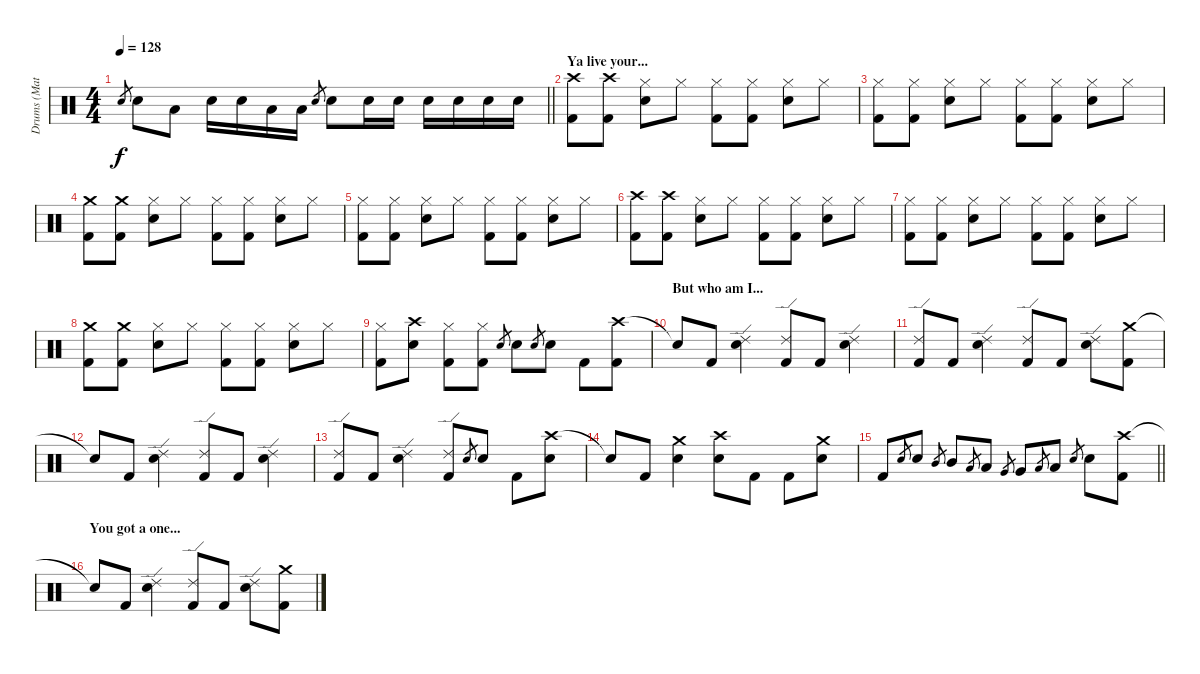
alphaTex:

\track ("Drums (Matt)" "Drums (Mat") {instrument percussion}
\staff {score}
\articulation defaults
\ts (4 4)
\tempo 128
\clef neutral
\barLineRight lightlight
\ks c "Snare (hit) 2".8{gr dy f} "Snare (hit) 2".8 "Low Tom (hit)".8 "Snare (hit) 2".16 "Snare (hit) 2".16 "Low Tom (hit)".16 "Low Tom (hit)".16 "Snare (hit) 2".8{gr} "Snare (hit) 2".8 "Snare (hit) 2".16 "Snare (hit) 2".16 "Snare (hit) 2".16 "Snare (hit) 2".16 "Snare (hit) 2".16 "Snare (hit) 2".16
|
\section ("" "Ya live your...")
("Crash high (hit)" "Kick (hit) 2").8 ("Crash high (hit)" "Kick (hit) 2").8 ("Hi-Hat (closed)" "Snare (hit) 2").8 "Hi-Hat (closed)".8 ("Hi-Hat (closed)" "Kick (hit) 2").8 ("Hi-Hat (closed)" "Kick (hit) 2").8 ("Hi-Hat (closed)" "Snare (hit) 2").8 "Hi-Hat (closed)".8 |
("Hi-Hat (closed)" "Kick (hit) 2").8 ("Hi-Hat (closed)" "Kick (hit) 2").8 ("Hi-Hat (closed)" "Snare (hit) 2").8 "Hi-Hat (closed)".8 ("Hi-Hat (closed)" "Kick (hit) 2").8 ("Hi-Hat (closed)" "Kick (hit) 2").8 ("Hi-Hat (closed)" "Snare (hit) 2").8 "Hi-Hat (closed)".8 |
("Crash medium (hit)" "Kick (hit) 2").8 ("Crash medium (hit)" "Kick (hit) 2").8 ("Hi-Hat (closed)" "Snare (hit) 2").8 "Hi-Hat (closed)".8 ("Hi-Hat (closed)" "Kick (hit) 2").8 ("Hi-Hat (closed)" "Kick (hit) 2").8 ("Hi-Hat (closed)" "Snare (hit) 2").8 "Hi-Hat (closed)".8 |
("Hi-Hat (closed)" "Kick (hit) 2").8 ("Hi-Hat (closed)" "Kick (hit) 2").8 ("Hi-Hat (closed)" "Snare (hit) 2").8 "Hi-Hat (closed)".8 ("Hi-Hat (closed)" "Kick (hit) 2").8 ("Hi-Hat (closed)" "Kick (hit) 2").8 ("Hi-Hat (closed)" "Snare (hit) 2").8 "Hi-Hat (closed)".8 |
("Crash high (hit)" "Kick (hit) 2").8 ("Crash high (hit)" "Kick (hit) 2").8 ("Hi-Hat (closed)" "Snare (hit) 2").8 "Hi-Hat (closed)".8 ("Hi-Hat (closed)" "Kick (hit) 2").8 ("Hi-Hat (closed)" "Kick (hit) 2").8 ("Hi-Hat (closed)" "Snare (hit) 2").8 "Hi-Hat (closed)".8 |
("Hi-Hat (closed)" "Kick (hit) 2").8 ("Hi-Hat (closed)" "Kick (hit) 2").8 ("Hi-Hat (closed)" "Snare (hit) 2").8 "Hi-Hat (closed)".8 ("Hi-Hat (closed)" "Kick (hit) 2").8 ("Hi-Hat (closed)" "Kick (hit) 2").8 ("Hi-Hat (closed)" "Snare (hit) 2").8 "Hi-Hat (closed)".8 |
("Crash medium (hit)" "Kick (hit) 2").8 ("Crash medium (hit)" "Kick (hit) 2").8 ("Hi-Hat (closed)" "Snare (hit) 2").8 "Hi-Hat (closed)".8 ("Hi-Hat (closed)" "Kick (hit) 2").8 ("Hi-Hat (closed)" "Kick (hit) 2").8 ("Hi-Hat (closed)" "Snare (hit) 2").8 "Hi-Hat (closed)".8 |
("Hi-Hat (closed)" "Kick (hit) 2").8 ("Crash high (hit)" "Snare (hit) 2").8 ("Hi-Hat (closed)" "Kick (hit) 2").8 ("Hi-Hat (closed)" "Kick (hit) 2").8 "Snare (hit) 2".8{gr} "Snare (hit) 2".8 "Snare (hit) 2".8{gr} "Snare (hit) 2".8 "Kick (hit) 2".8 ("Crash high (hit)" "Kick (hit) 2").8 |
\section ("" "But who am I...")
"Snare (hit)"{t}.8 "Kick (hit) 2".8 ("Ride (edge) 2" "Snare (hit) 2").4 ("Ride (edge) 2" "Kick (hit) 2").8 "Kick (hit) 2".8 ("Ride (edge) 2" "Snare (hit) 2").4 |
("Ride (edge) 2" "Kick (hit) 2").8 "Kick (hit) 2".8 ("Ride (edge) 2" "Snare (hit) 2").4 ("Ride (edge) 2" "Kick (hit) 2").8 "Kick (hit) 2".8 ("Ride (edge) 2" "Snare (hit) 2").8 ("Crash medium (hit)" "Kick (hit) 2").8 |
"Snare (hit)"{t}.8 "Kick (hit) 2".8 ("Ride (edge) 2" "Snare (hit) 2").4 ("Ride (edge) 2" "Kick (hit) 2").8 "Kick (hit) 2".8 ("Ride (edge) 2" "Snare (hit) 2").4 |
("Ride (edge) 2" "Kick (hit) 2").8 "Kick (hit) 2".8 ("Ride (edge) 2" "Snare (hit) 2").4 ("Ride (edge) 2" "Kick (hit) 2").8 "Snare (hit) 2".8{gr} "Snare (hit) 2".8 "Kick (hit) 2".8 ("Crash high (hit)" "Snare (hit) 2").8 |
"Snare (hit)"{t}.8 "Kick (hit) 2".8 ("Crash medium (hit)" "Snare (hit) 2").4 ("Crash high (hit)" "Snare (hit) 2").8 "Kick (hit) 2".8 "Kick (hit) 2".8 ("Crash medium (hit)" "Snare (hit) 2").8 |
\barLineRight lightlight "Kick (hit) 2".8 "Snare (hit) 2".8{gr} "Snare (hit) 2".8 "Mid Tom (hit)".8{gr} "Mid Tom (hit)".8 "Low Tom (hit)".8{gr} "Low Tom (hit)".8 "Very Low Tom (hit)".8{gr} "Very Low Tom (hit)".8 "Low Floor Tom (hit)".8{gr} "Low Floor Tom (hit)".8 "Snare (hit) 2".8{gr} "Snare (hit) 2".8
("Crash high (hit)" "Kick (hit) 2").8 |
\section ("" "You got a one...")
"Snare (hit)"{t}.8 "Kick (hit) 2".8 ("Ride (edge) 2" "Snare (hit) 2").4 ("Ride (edge) 2" "Kick (hit) 2").8 "Kick (hit) 2".8 ("Ride (edge) 2" "Snare (hit) 2").8 ("Crash medium (hit)" "Kick (hit) 2").8
